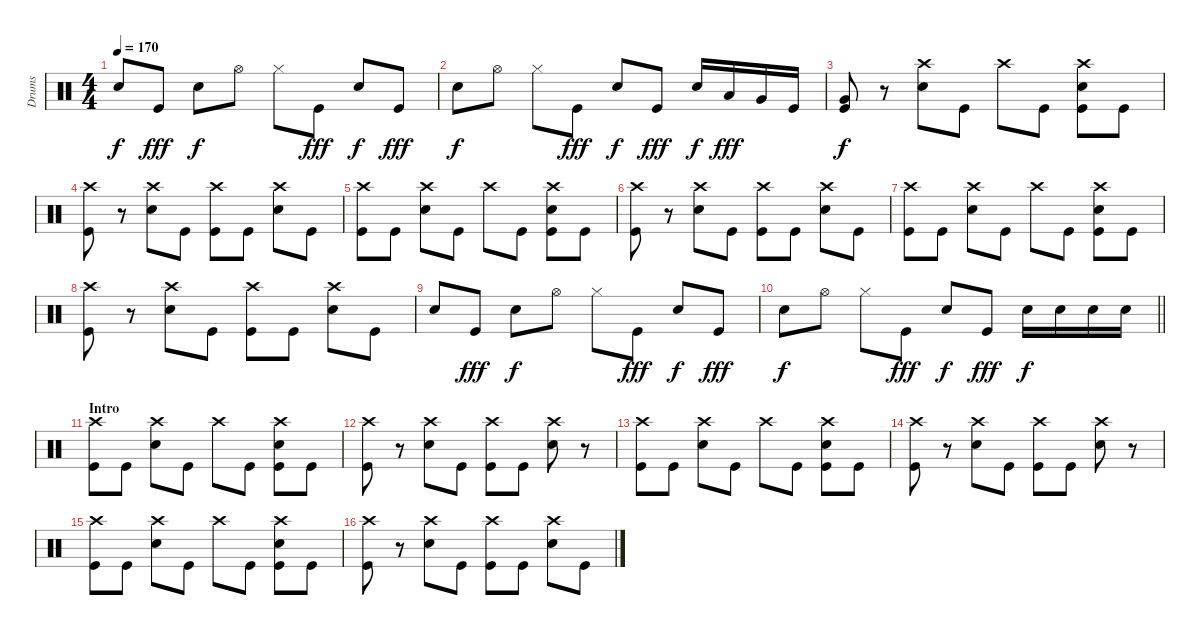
\track ("Drums" "Drums") {instrument percussion}
\staff {score}
\articulation defaults
\ts (4 4)
\tempo 170
\clef neutral
\ks c "Electric Snare (hit)".8{dy f} "Kick (hit)".8{dy fff} "Electric Snare (hit)".8{dy f} "Hi-Hat (open)".8 "Hi-Hat (closed)".8 "Kick (hit)".8{dy fff} "Electric Snare (hit)".8{dy f} "Kick (hit)".8{dy fff}
|
"Electric Snare (hit)".8{dy f} "Hi-Hat (open)".8 "Hi-Hat (closed)".8 "Kick (hit)".8{dy fff} "Electric Snare (hit)".8{dy f} "Kick (hit)".8{dy fff} "Electric Snare (hit)".16{dy f} "Low Tom (hit)".16{dy fff} "Very Low Tom (hit)".16 "Kick (hit)".16 |
("Very Low Tom (hit)" "Kick (hit)").8{dy f} r.8 ("Crash high (hit)" "Electric Snare (hit)").8 "Kick (hit)".8 "Crash high (hit)".8 "Kick (hit)".8 ("Crash high (hit)" "Electric Snare (hit)" "Kick (hit)").8 "Kick (hit)".8 |
("Crash high (hit)" "Kick (hit)").8 r.8 ("Crash high (hit)" "Electric Snare (hit)").8 "Kick (hit)".8 ("Crash high (hit)" "Kick (hit)").8 "Kick (hit)".8 ("Crash high (hit)" "Electric Snare (hit)").8 "Kick (hit)".8 |
("Crash high (hit)" "Kick (hit)").8 "Kick (hit)".8 ("Crash high (hit)" "Electric Snare (hit)").8 "Kick (hit)".8 "Crash high (hit)".8 "Kick (hit)".8 ("Crash high (hit)" "Electric Snare (hit)" "Kick (hit)").8 "Kick (hit)".8 |
("Crash high (hit)" "Kick (hit)").8 r.8 ("Crash high (hit)" "Electric Snare (hit)").8 "Kick (hit)".8 ("Crash high (hit)" "Kick (hit)").8 "Kick (hit)".8 ("Crash high (hit)" "Electric Snare (hit)").8 "Kick (hit)".8 |
("Crash high (hit)" "Kick (hit)").8 "Kick (hit)".8 ("Crash high (hit)" "Electric Snare (hit)").8 "Kick (hit)".8 "Crash high (hit)".8 "Kick (hit)".8 ("Crash high (hit)" "Electric Snare (hit)" "Kick (hit)").8 "Kick (hit)".8 |
("Crash high (hit)" "Kick (hit)").8 r.8 ("Crash high (hit)" "Electric Snare (hit)").8 "Kick (hit)".8 ("Crash high (hit)" "Kick (hit)").8 "Kick (hit)".8 ("Crash high (hit)" "Electric Snare (hit)").8 "Kick (hit)".8 |
"Electric Snare (hit)".8 "Kick (hit)".8{dy fff} "Electric Snare (hit)".8{dy f} "Hi-Hat (open)".8 "Hi-Hat (closed)".8 "Kick (hit)".8{dy fff} "Electric Snare (hit)".8{dy f} "Kick (hit)".8{dy fff} |
\barLineRight lightlight "Electric Snare (hit)".8{dy f} "Hi-Hat (open)".8 "Hi-Hat (closed)".8 "Kick (hit)".8{dy fff} "Electric Snare (hit)".8{dy f} "Kick (hit)".8{dy fff} "Electric Snare (hit)".16{dy f} "Electric Snare (hit)".16 "Electric Snare (hit)".16 "Electric Snare (hit)".16
|
\section ("" "Intro")
("Crash high (hit)" "Kick (hit)").8 "Kick (hit)".8 ("Crash high (hit)" "Electric Snare (hit)").8 "Kick (hit)".8 "Crash high (hit)".8 "Kick (hit)".8 ("Crash high (hit)" "Electric Snare (hit)" "Kick (hit)").8 "Kick (hit)".8 |
("Crash high (hit)" "Kick (hit)").8 r.8 ("Crash high (hit)" "Electric Snare (hit)").8 "Kick (hit)".8 ("Crash high (hit)" "Kick (hit)").8 "Kick (hit)".8 ("Crash high (hit)" "Electric Snare (hit)").8 r.8 |
("Crash high (hit)" "Kick (hit)").8 "Kick (hit)".8 ("Crash high (hit)" "Electric Snare (hit)").8 "Kick (hit)".8 "Crash high (hit)".8 "Kick (hit)".8 ("Crash high (hit)" "Electric Snare (hit)" "Kick (hit)").8 "Kick (hit)".8 |
("Crash high (hit)" "Kick (hit)").8 r.8 ("Crash high (hit)" "Electric Snare (hit)").8 "Kick (hit)".8 ("Crash high (hit)" "Kick (hit)").8 "Kick (hit)".8 ("Crash high (hit)" "Electric Snare (hit)").8 r.8 |
("Crash high (hit)" "Kick (hit)").8 "Kick (hit)".8 ("Crash high (hit)" "Electric Snare (hit)").8 "Kick (hit)".8 "Crash high (hit)".8 "Kick (hit)".8 ("Crash high (hit)" "Electric Snare (hit)" "Kick (hit)").8 "Kick (hit)".8 |
("Crash high (hit)" "Kick (hit)").8 r.8 ("Crash high (hit)" "Electric Snare (hit)").8 "Kick (hit)".8 ("Crash high (hit)" "Kick (hit)").8 "Kick (hit)".8 ("Crash high (hit)" "Electric Snare (hit)").8 "Kick (hit)".8
